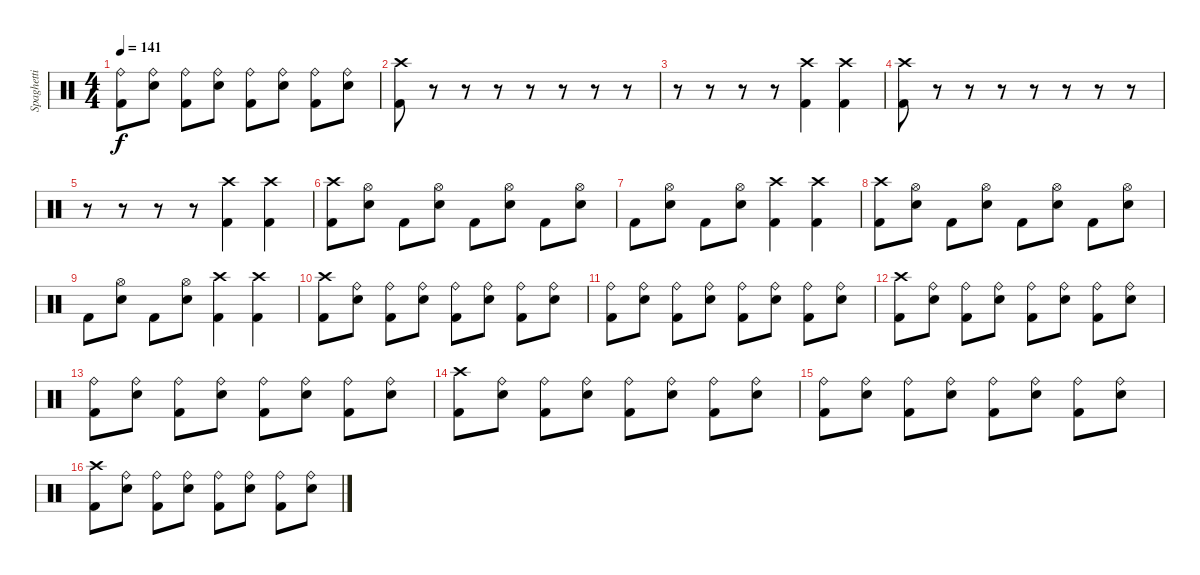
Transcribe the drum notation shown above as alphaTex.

\track ("Spaghetti" "Spaghetti") {instrument percussion}
\staff {score}
\articulation defaults
\ts (4 4)
\tempo 141
\clef neutral
\ks c
("Ride (bell)" "Kick (hit) 2").8{dy f} ("Ride (bell)" "Snare (hit) 2").8 ("Ride (bell)" "Kick (hit) 2").8 ("Ride (bell)" "Snare (hit) 2").8 ("Ride (bell)" "Kick (hit) 2").8 ("Ride (bell)" "Snare (hit) 2").8 ("Ride (bell)" "Kick (hit) 2").8 ("Ride (bell)" "Snare (hit) 2").8 |
("Crash high (hit)" "Kick (hit) 2").8 r.8 r.8 r.8 r.8 r.8 r.8 r.8 |
r.8 r.8 r.8 r.8 ("Crash high (hit)" "Kick (hit) 2").4 ("Crash high (hit)" "Kick (hit) 2").4 |
("Crash high (hit)" "Kick (hit) 2").8 r.8 r.8 r.8 r.8 r.8 r.8 r.8 |
r.8 r.8 r.8 r.8 ("Crash high (hit)" "Kick (hit) 2").4 ("Crash high (hit)" "Kick (hit) 2").4 |
("Crash high (hit)" "Kick (hit) 2").8 ("Hi-Hat (open)" "Snare (hit) 2").8 "Kick (hit) 2".8 ("Hi-Hat (open)" "Snare (hit) 2").8 "Kick (hit) 2".8 ("Hi-Hat (open)" "Snare (hit) 2").8 "Kick (hit) 2".8 ("Hi-Hat (open)" "Snare (hit) 2").8 |
"Kick (hit) 2".8 ("Hi-Hat (open)" "Snare (hit) 2").8 "Kick (hit) 2".8 ("Hi-Hat (open)" "Snare (hit) 2").8 ("Crash high (hit)" "Kick (hit) 2").4 ("Crash high (hit)" "Kick (hit) 2").4 |
("Crash high (hit)" "Kick (hit) 2").8 ("Hi-Hat (open)" "Snare (hit) 2").8 "Kick (hit) 2".8 ("Hi-Hat (open)" "Snare (hit) 2").8 "Kick (hit) 2".8 ("Hi-Hat (open)" "Snare (hit) 2").8 "Kick (hit) 2".8 ("Hi-Hat (open)" "Snare (hit) 2").8 |
"Kick (hit) 2".8 ("Hi-Hat (open)" "Snare (hit) 2").8 "Kick (hit) 2".8 ("Hi-Hat (open)" "Snare (hit) 2").8 ("Crash high (hit)" "Kick (hit) 2").4 ("Crash high (hit)" "Kick (hit) 2").4 |
("Crash high (hit)" "Kick (hit) 2").8 ("Ride (bell)" "Snare (hit) 2").8 ("Ride (bell)" "Kick (hit) 2").8 ("Ride (bell)" "Snare (hit) 2").8 ("Ride (bell)" "Kick (hit) 2").8 ("Ride (bell)" "Snare (hit) 2").8 ("Ride (bell)" "Kick (hit) 2").8 ("Ride (bell)" "Snare (hit) 2").8 |
("Ride (bell)" "Kick (hit) 2").8 ("Ride (bell)" "Snare (hit) 2").8 ("Ride (bell)" "Kick (hit) 2").8 ("Ride (bell)" "Snare (hit) 2").8 ("Ride (bell)" "Kick (hit) 2").8 ("Ride (bell)" "Snare (hit) 2").8 ("Ride (bell)" "Kick (hit) 2").8 ("Ride (bell)" "Snare (hit) 2").8 |
("Crash high (hit)" "Kick (hit) 2").8 ("Ride (bell)" "Snare (hit) 2").8 ("Ride (bell)" "Kick (hit) 2").8 ("Ride (bell)" "Snare (hit) 2").8 ("Ride (bell)" "Kick (hit) 2").8 ("Ride (bell)" "Snare (hit) 2").8 ("Ride (bell)" "Kick (hit) 2").8 ("Ride (bell)" "Snare (hit) 2").8 |
("Ride (bell)" "Kick (hit) 2").8 ("Ride (bell)" "Snare (hit) 2").8 ("Ride (bell)" "Kick (hit) 2").8 ("Ride (bell)" "Snare (hit) 2").8 ("Ride (bell)" "Kick (hit) 2").8 ("Ride (bell)" "Snare (hit) 2").8 ("Ride (bell)" "Kick (hit) 2").8 ("Ride (bell)" "Snare (hit) 2").8 |
("Crash high (hit)" "Kick (hit) 2").8 ("Ride (bell)" "Snare (hit) 2").8 ("Ride (bell)" "Kick (hit) 2").8 ("Ride (bell)" "Snare (hit) 2").8 ("Ride (bell)" "Kick (hit) 2").8 ("Ride (bell)" "Snare (hit) 2").8 ("Ride (bell)" "Kick (hit) 2").8 ("Ride (bell)" "Snare (hit) 2").8 |
("Ride (bell)" "Kick (hit) 2").8 ("Ride (bell)" "Snare (hit) 2").8 ("Ride (bell)" "Kick (hit) 2").8 ("Ride (bell)" "Snare (hit) 2").8 ("Ride (bell)" "Kick (hit) 2").8 ("Ride (bell)" "Snare (hit) 2").8 ("Ride (bell)" "Kick (hit) 2").8 ("Ride (bell)" "Snare (hit) 2").8 |
("Crash high (hit)" "Kick (hit) 2").8 ("Ride (bell)" "Snare (hit) 2").8 ("Ride (bell)" "Kick (hit) 2").8 ("Ride (bell)" "Snare (hit) 2").8 ("Ride (bell)" "Kick (hit) 2").8 ("Ride (bell)" "Snare (hit) 2").8 ("Ride (bell)" "Kick (hit) 2").8 ("Ride (bell)" "Snare (hit) 2").8
